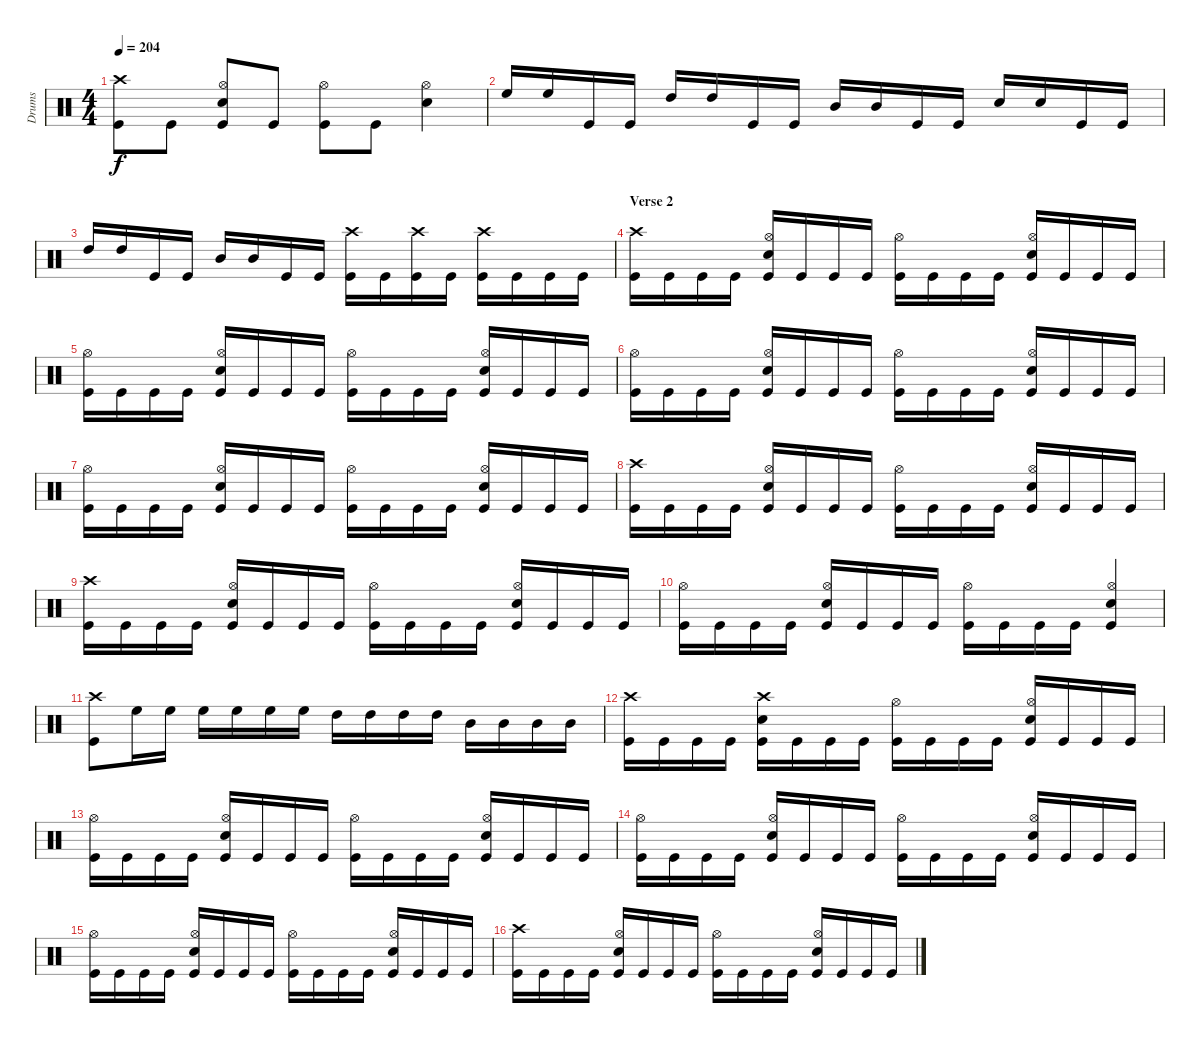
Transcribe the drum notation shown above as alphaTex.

\track ("Drums" "Drums") {instrument percussion}
\staff {score}
\articulation defaults
\ts (4 4)
\tempo 204
\clef neutral
\ks c
("Crash high (hit)" "Kick (hit)").8{dy f} "Kick (hit)".8 ("Hi-Hat (open)" "Snare (hit) 2" "Kick (hit)").8 "Kick (hit)".8 ("Hi-Hat (open)" "Kick (hit)").8 "Kick (hit)".8 ("Hi-Hat (open)" "Snare (hit) 2").4 |
"High Floor Tom (hit)".16 "High Floor Tom (hit)".16 "Kick (hit)".16 "Kick (hit)".16 "High Tom (hit)".16 "High Tom (hit)".16 "Kick (hit)".16 "Kick (hit)".16 "Mid Tom (hit)".16 "Mid Tom (hit)".16 "Kick (hit)".16 "Kick (hit)".16 "Snare (hit) 2".16 "Snare (hit) 2".16 "Kick (hit)".16 "Kick (hit)".16 |
"High Tom (hit)".16 "High Tom (hit)".16 "Kick (hit)".16 "Kick (hit)".16 "Mid Tom (hit)".16 "Mid Tom (hit)".16 "Kick (hit)".16 "Kick (hit)".16 ("Crash high (hit)" "Kick (hit)").16 "Kick (hit)".16 ("Crash high (hit)" "Kick (hit)").16 "Kick (hit)".16 ("Crash high (hit)" "Kick (hit)").16 "Kick (hit)".16 "Kick (hit)".16 "Kick (hit)".16 |
\section ("" "Verse 2")
("Crash high (hit)" "Kick (hit)").16 "Kick (hit)".16 "Kick (hit)".16 "Kick (hit)".16 ("Hi-Hat (open)" "Snare (hit) 2" "Kick (hit)").16 "Kick (hit)".16 "Kick (hit)".16 "Kick (hit)".16 ("Hi-Hat (open)" "Kick (hit)").16 "Kick (hit)".16 "Kick (hit)".16 "Kick (hit)".16 ("Hi-Hat (open)" "Snare (hit) 2" "Kick (hit)").16 "Kick (hit)".16 "Kick (hit)".16 "Kick (hit)".16 |
("Hi-Hat (open)" "Kick (hit)").16 "Kick (hit)".16 "Kick (hit)".16 "Kick (hit)".16 ("Hi-Hat (open)" "Snare (hit) 2" "Kick (hit)").16 "Kick (hit)".16 "Kick (hit)".16 "Kick (hit)".16 ("Hi-Hat (open)" "Kick (hit)").16 "Kick (hit)".16 "Kick (hit)".16 "Kick (hit)".16 ("Hi-Hat (open)" "Snare (hit) 2" "Kick (hit)").16 "Kick (hit)".16 "Kick (hit)".16 "Kick (hit)".16 |
("Hi-Hat (open)" "Kick (hit)").16 "Kick (hit)".16 "Kick (hit)".16 "Kick (hit)".16 ("Hi-Hat (open)" "Snare (hit) 2" "Kick (hit)").16 "Kick (hit)".16 "Kick (hit)".16 "Kick (hit)".16 ("Hi-Hat (open)" "Kick (hit)").16 "Kick (hit)".16 "Kick (hit)".16 "Kick (hit)".16 ("Hi-Hat (open)" "Snare (hit) 2" "Kick (hit)").16 "Kick (hit)".16 "Kick (hit)".16 "Kick (hit)".16 |
("Hi-Hat (open)" "Kick (hit)").16 "Kick (hit)".16 "Kick (hit)".16 "Kick (hit)".16 ("Hi-Hat (open)" "Snare (hit) 2" "Kick (hit)").16 "Kick (hit)".16 "Kick (hit)".16 "Kick (hit)".16 ("Hi-Hat (open)" "Kick (hit)").16 "Kick (hit)".16 "Kick (hit)".16 "Kick (hit)".16 ("Hi-Hat (open)" "Snare (hit) 2" "Kick (hit)").16 "Kick (hit)".16 "Kick (hit)".16 "Kick (hit)".16 |
("Crash high (hit)" "Kick (hit)").16 "Kick (hit)".16 "Kick (hit)".16 "Kick (hit)".16 ("Hi-Hat (open)" "Snare (hit) 2" "Kick (hit)").16 "Kick (hit)".16 "Kick (hit)".16 "Kick (hit)".16 ("Hi-Hat (open)" "Kick (hit)").16 "Kick (hit)".16 "Kick (hit)".16 "Kick (hit)".16 ("Hi-Hat (open)" "Snare (hit) 2" "Kick (hit)").16 "Kick (hit)".16 "Kick (hit)".16 "Kick (hit)".16 |
("Crash high (hit)" "Kick (hit)").16 "Kick (hit)".16 "Kick (hit)".16 "Kick (hit)".16 ("Hi-Hat (open)" "Snare (hit) 2" "Kick (hit)").16 "Kick (hit)".16 "Kick (hit)".16 "Kick (hit)".16 ("Hi-Hat (open)" "Kick (hit)").16 "Kick (hit)".16 "Kick (hit)".16 "Kick (hit)".16 ("Hi-Hat (open)" "Snare (hit) 2" "Kick (hit)").16 "Kick (hit)".16 "Kick (hit)".16 "Kick (hit)".16 |
("Hi-Hat (open)" "Kick (hit)").16 "Kick (hit)".16 "Kick (hit)".16 "Kick (hit)".16 ("Hi-Hat (open)" "Snare (hit) 2" "Kick (hit)").16 "Kick (hit)".16 "Kick (hit)".16 "Kick (hit)".16 ("Hi-Hat (open)" "Kick (hit)").16 "Kick (hit)".16 "Kick (hit)".16 "Kick (hit)".16 ("Hi-Hat (open)" "Snare (hit) 2" "Kick (hit)").4 |
("Crash high (hit)" "Kick (hit)").8 "High Floor Tom (hit)".16 "High Floor Tom (hit)".16 "High Floor Tom (hit)".16 "High Floor Tom (hit)".16 "High Floor Tom (hit)".16 "High Floor Tom (hit)".16 "High Tom (hit)".16 "High Tom (hit)".16 "High Tom (hit)".16 "High Tom (hit)".16 "Mid Tom (hit)".16 "Mid Tom (hit)".16 "Mid Tom (hit)".16 "Mid Tom (hit)".16 |
("Crash high (hit)" "Kick (hit)").16 "Kick (hit)".16 "Kick (hit)".16 "Kick (hit)".16 ("Crash high (hit)" "Snare (hit) 2" "Kick (hit)").16 "Kick (hit)".16 "Kick (hit)".16 "Kick (hit)".16 ("Hi-Hat (open)" "Kick (hit)").16 "Kick (hit)".16 "Kick (hit)".16 "Kick (hit)".16 ("Hi-Hat (open)" "Snare (hit) 2" "Kick (hit)").16 "Kick (hit)".16 "Kick (hit)".16 "Kick (hit)".16 |
("Hi-Hat (open)" "Kick (hit)").16 "Kick (hit)".16 "Kick (hit)".16 "Kick (hit)".16 ("Hi-Hat (open)" "Snare (hit) 2" "Kick (hit)").16 "Kick (hit)".16 "Kick (hit)".16 "Kick (hit)".16 ("Hi-Hat (open)" "Kick (hit)").16 "Kick (hit)".16 "Kick (hit)".16 "Kick (hit)".16 ("Hi-Hat (open)" "Snare (hit) 2" "Kick (hit)").16 "Kick (hit)".16 "Kick (hit)".16 "Kick (hit)".16 |
("Hi-Hat (open)" "Kick (hit)").16 "Kick (hit)".16 "Kick (hit)".16 "Kick (hit)".16 ("Hi-Hat (open)" "Snare (hit) 2" "Kick (hit)").16 "Kick (hit)".16 "Kick (hit)".16 "Kick (hit)".16 ("Hi-Hat (open)" "Kick (hit)").16 "Kick (hit)".16 "Kick (hit)".16 "Kick (hit)".16 ("Hi-Hat (open)" "Snare (hit) 2" "Kick (hit)").16 "Kick (hit)".16 "Kick (hit)".16 "Kick (hit)".16 |
("Hi-Hat (open)" "Kick (hit)").16 "Kick (hit)".16 "Kick (hit)".16 "Kick (hit)".16 ("Hi-Hat (open)" "Snare (hit) 2" "Kick (hit)").16 "Kick (hit)".16 "Kick (hit)".16 "Kick (hit)".16 ("Hi-Hat (open)" "Kick (hit)").16 "Kick (hit)".16 "Kick (hit)".16 "Kick (hit)".16 ("Hi-Hat (open)" "Snare (hit) 2" "Kick (hit)").16 "Kick (hit)".16 "Kick (hit)".16 "Kick (hit)".16 |
("Crash high (hit)" "Kick (hit)").16 "Kick (hit)".16 "Kick (hit)".16 "Kick (hit)".16 ("Hi-Hat (open)" "Snare (hit) 2" "Kick (hit)").16 "Kick (hit)".16 "Kick (hit)".16 "Kick (hit)".16 ("Hi-Hat (open)" "Kick (hit)").16 "Kick (hit)".16 "Kick (hit)".16 "Kick (hit)".16 ("Hi-Hat (open)" "Snare (hit) 2" "Kick (hit)").16 "Kick (hit)".16 "Kick (hit)".16 "Kick (hit)".16
